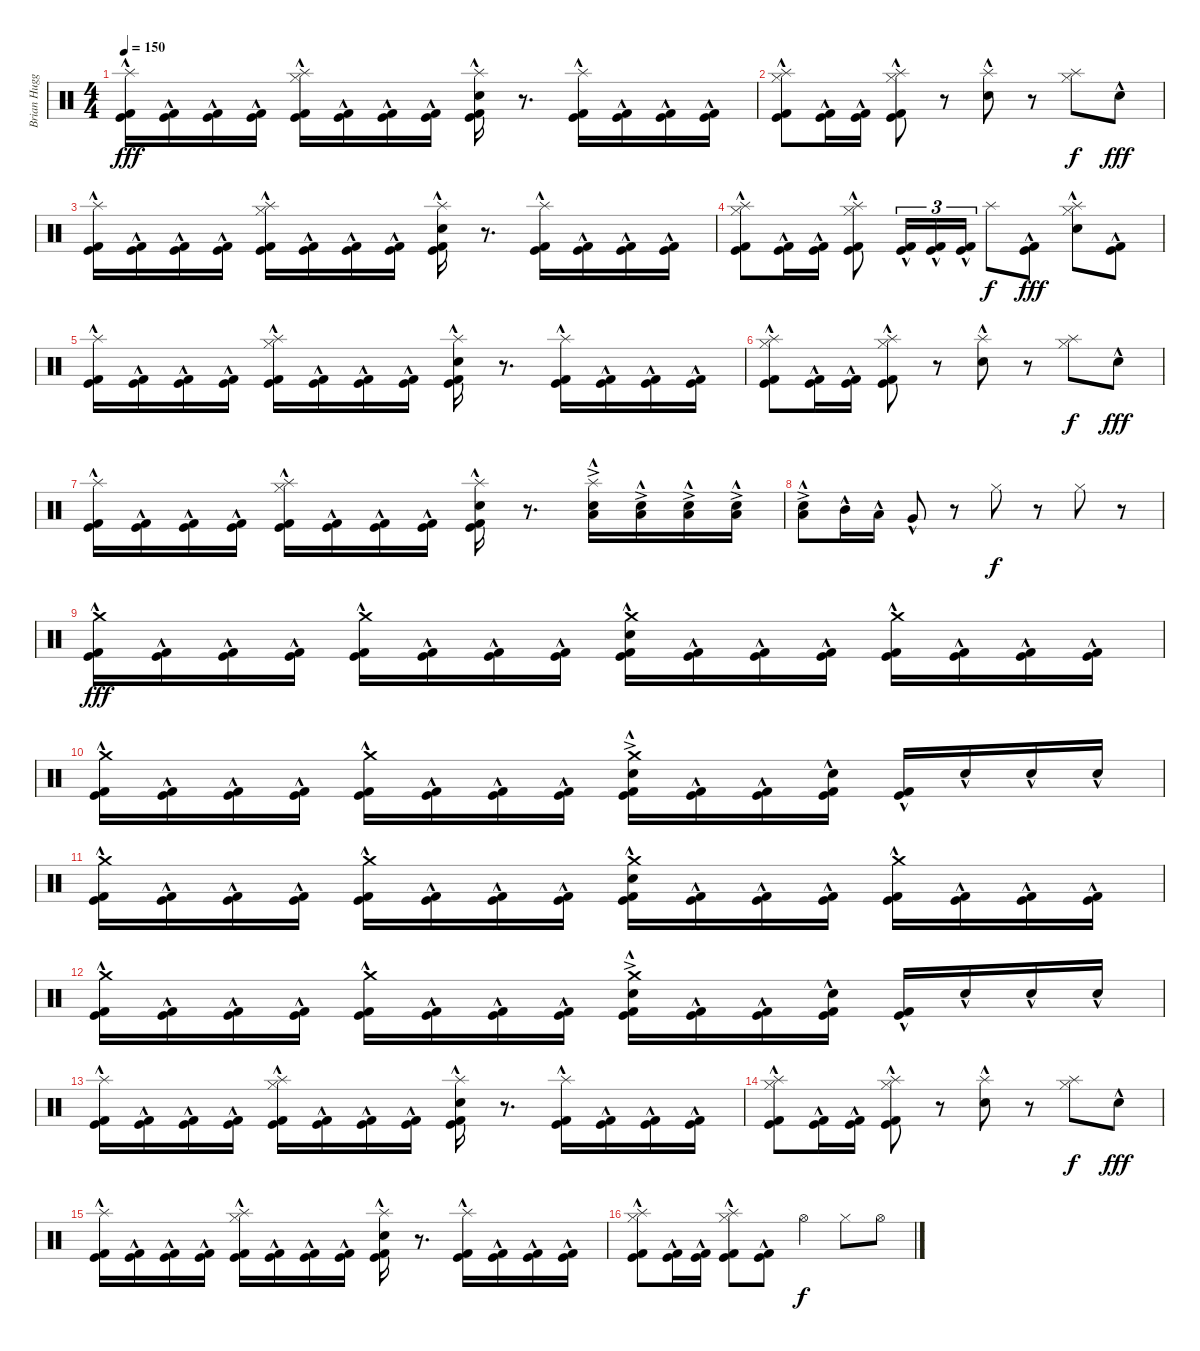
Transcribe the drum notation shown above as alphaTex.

\track ("Brian Huggins (Drums)" "Brian Hugg") {instrument percussion}
\staff {score}
\articulation defaults
\ts (4 4)
\tempo 150
\clef neutral
\ks c
("Splash (hit)" "Kick (hit)"{hac} "Kick (hit) 2"{hac}).16{dy fff} ("Kick (hit)"{hac} "Kick (hit) 2"{hac}).16 ("Kick (hit)"{hac} "Kick (hit) 2"{hac}).16 ("Kick (hit)"{hac} "Kick (hit) 2"{hac}).16 ("Hi-Hat (closed)" "Splash (hit)" "Kick (hit)"{hac} "Kick (hit) 2"{hac}).16 ("Kick (hit)"{hac} "Kick (hit) 2"{hac}).16 ("Kick (hit)"{hac} "Kick (hit) 2"{hac}).16 ("Kick (hit)"{hac} "Kick (hit) 2"{hac}).16 ("Splash (hit)" "Snare (hit) 2"{hac} "Kick (hit)"{hac} "Kick (hit) 2"{hac}).16 r.8{d} ("Splash (hit)" "Kick (hit)"{hac} "Kick (hit) 2"{hac}).16 ("Kick (hit)"{hac} "Kick (hit) 2"{hac}).16 ("Kick (hit)"{hac} "Kick (hit) 2"{hac}).16 ("Kick (hit)"{hac} "Kick (hit) 2"{hac}).16 |
("Hi-Hat (closed)" "Splash (hit)" "Kick (hit)"{hac} "Kick (hit) 2"{hac}).8 ("Kick (hit)"{hac} "Kick (hit) 2"{hac}).16 ("Kick (hit)"{hac} "Kick (hit) 2"{hac}).16 ("Hi-Hat (closed)" "Splash (hit)" "Kick (hit)"{hac} "Kick (hit) 2"{hac}).8 r.8 ("Splash (hit)" "Snare (hit) 2"{hac}).8 r.8 ("Hi-Hat (closed)" "Splash (hit)").8{dy f} "Snare (hit) 2"{hac}.8{dy fff} |
("Splash (hit)" "Kick (hit)"{hac} "Kick (hit) 2"{hac}).16 ("Kick (hit)"{hac} "Kick (hit) 2"{hac}).16 ("Kick (hit)"{hac} "Kick (hit) 2"{hac}).16 ("Kick (hit)"{hac} "Kick (hit) 2"{hac}).16 ("Hi-Hat (closed)" "Splash (hit)" "Kick (hit)"{hac} "Kick (hit) 2"{hac}).16 ("Kick (hit)"{hac} "Kick (hit) 2"{hac}).16 ("Kick (hit)"{hac} "Kick (hit) 2"{hac}).16 ("Kick (hit)"{hac} "Kick (hit) 2"{hac}).16 ("Splash (hit)" "Snare (hit) 2"{hac} "Kick (hit)"{hac} "Kick (hit) 2"{hac}).16 r.8{d} ("Splash (hit)" "Kick (hit)"{hac} "Kick (hit) 2"{hac}).16 ("Kick (hit)"{hac} "Kick (hit) 2"{hac}).16 ("Kick (hit)"{hac} "Kick (hit) 2"{hac}).16 ("Kick (hit)"{hac} "Kick (hit) 2"{hac}).16 |
("Hi-Hat (closed)" "Splash (hit)" "Kick (hit)"{hac} "Kick (hit) 2"{hac}).8 ("Kick (hit)"{hac} "Kick (hit) 2"{hac}).16 ("Kick (hit)"{hac} "Kick (hit) 2"{hac}).16 ("Hi-Hat (closed)" "Splash (hit)" "Kick (hit)"{hac} "Kick (hit) 2"{hac}).8 ("Kick (hit)"{hac} "Kick (hit) 2"{hac}).16{tu (3 2)} ("Kick (hit)"{hac} "Kick (hit) 2"{hac}).16{tu (3 2)} ("Kick (hit)"{hac} "Kick (hit) 2"{hac}).16{tu (3 2)} "Splash (hit)".8{dy f} ("Kick (hit)"{hac} "Kick (hit) 2"{hac}).8{dy fff} ("Hi-Hat (closed)" "Splash (hit)" "Snare (hit) 2"{hac}).8 ("Kick (hit)"{hac} "Kick (hit) 2"{hac}).8 |
("Splash (hit)" "Kick (hit)"{hac} "Kick (hit) 2"{hac}).16 ("Kick (hit)"{hac} "Kick (hit) 2"{hac}).16 ("Kick (hit)"{hac} "Kick (hit) 2"{hac}).16 ("Kick (hit)"{hac} "Kick (hit) 2"{hac}).16 ("Hi-Hat (closed)" "Splash (hit)" "Kick (hit)"{hac} "Kick (hit) 2"{hac}).16 ("Kick (hit)"{hac} "Kick (hit) 2"{hac}).16 ("Kick (hit)"{hac} "Kick (hit) 2"{hac}).16 ("Kick (hit)"{hac} "Kick (hit) 2"{hac}).16 ("Splash (hit)" "Snare (hit) 2"{hac} "Kick (hit)"{hac} "Kick (hit) 2"{hac}).16 r.8{d} ("Splash (hit)" "Kick (hit)"{hac} "Kick (hit) 2"{hac}).16 ("Kick (hit)"{hac} "Kick (hit) 2"{hac}).16 ("Kick (hit)"{hac} "Kick (hit) 2"{hac}).16 ("Kick (hit)"{hac} "Kick (hit) 2"{hac}).16 |
("Hi-Hat (closed)" "Splash (hit)" "Kick (hit)"{hac} "Kick (hit) 2"{hac}).8 ("Kick (hit)"{hac} "Kick (hit) 2"{hac}).16 ("Kick (hit)"{hac} "Kick (hit) 2"{hac}).16 ("Hi-Hat (closed)" "Splash (hit)" "Kick (hit)"{hac} "Kick (hit) 2"{hac}).8 r.8 ("Splash (hit)" "Snare (hit) 2"{hac}).8 r.8 ("Hi-Hat (closed)" "Splash (hit)").8{dy f} "Snare (hit) 2"{hac}.8{dy fff} |
("Splash (hit)" "Kick (hit)"{hac} "Kick (hit) 2"{hac}).16 ("Kick (hit)"{hac} "Kick (hit) 2"{hac}).16 ("Kick (hit)"{hac} "Kick (hit) 2"{hac}).16 ("Kick (hit)"{hac} "Kick (hit) 2"{hac}).16 ("Hi-Hat (closed)" "Splash (hit)" "Kick (hit)"{hac} "Kick (hit) 2"{hac}).16 ("Kick (hit)"{hac} "Kick (hit) 2"{hac}).16 ("Kick (hit)"{hac} "Kick (hit) 2"{hac}).16 ("Kick (hit)"{hac} "Kick (hit) 2"{hac}).16 ("Splash (hit)" "Snare (hit) 2"{hac} "Kick (hit)"{hac} "Kick (hit) 2"{hac}).16 r.8{d} ("Splash (hit)" "Low Floor Tom (hit)"{ac} "Snare (hit) 2"{hac}).16 ("Low Floor Tom (hit)"{ac} "Snare (hit) 2"{hac}).16 ("Low Floor Tom (hit)"{ac} "Snare (hit) 2"{hac}).16 ("Low Floor Tom (hit)"{ac} "Snare (hit) 2"{hac}).16 |
("Low Floor Tom (hit)"{ac} "Snare (hit) 2"{hac}).8 "Mid Tom (hit)"{hac}.16 "Low Tom (hit)"{hac}.16 "Very Low Tom (hit)"{hac}.8 r.8 "Hi-Hat (closed)".8{dy f} r.8 "Hi-Hat (closed)".8 r.8 |
("Crash medium (hit)" "Kick (hit)"{hac} "Kick (hit) 2"{hac}).16{dy fff} ("Kick (hit)"{hac} "Kick (hit) 2"{hac}).16 ("Kick (hit)"{hac} "Kick (hit) 2"{hac}).16 ("Kick (hit)"{hac} "Kick (hit) 2"{hac}).16 ("Crash medium (hit)" "Kick (hit)"{hac} "Kick (hit) 2"{hac}).16 ("Kick (hit)"{hac} "Kick (hit) 2"{hac}).16 ("Kick (hit)"{hac} "Kick (hit) 2"{hac}).16 ("Kick (hit)"{hac} "Kick (hit) 2"{hac}).16 ("Crash medium (hit)" "Snare (hit) 2"{hac} "Kick (hit)"{hac} "Kick (hit) 2"{hac}).16 ("Kick (hit)"{hac} "Kick (hit) 2"{hac}).16 ("Kick (hit)"{hac} "Kick (hit) 2"{hac}).16 ("Kick (hit)"{hac} "Kick (hit) 2"{hac}).16 ("Crash medium (hit)" "Kick (hit)"{hac} "Kick (hit) 2"{hac}).16 ("Kick (hit)"{hac} "Kick (hit) 2"{hac}).16 ("Kick (hit)"{hac} "Kick (hit) 2"{hac}).16 ("Kick (hit)"{hac} "Kick (hit) 2"{hac}).16 |
("Crash medium (hit)" "Kick (hit)"{hac} "Kick (hit) 2"{hac}).16 ("Kick (hit)"{hac} "Kick (hit) 2"{hac}).16 ("Kick (hit)"{hac} "Kick (hit) 2"{hac}).16 ("Kick (hit)"{hac} "Kick (hit) 2"{hac}).16 ("Crash medium (hit)" "Kick (hit)"{hac} "Kick (hit) 2"{hac}).16 ("Kick (hit)"{hac} "Kick (hit) 2"{hac}).16 ("Kick (hit)"{hac} "Kick (hit) 2"{hac}).16 ("Kick (hit)"{hac} "Kick (hit) 2"{hac}).16 ("Crash medium (hit)" "Snare (hit) 2"{ac} "Kick (hit)"{hac} "Kick (hit) 2"{hac}).16 ("Kick (hit)"{hac} "Kick (hit) 2"{hac}).16 ("Kick (hit)"{hac} "Kick (hit) 2"{hac}).16 ("Snare (hit) 2"{hac} "Kick (hit)"{hac} "Kick (hit) 2"{hac}).16 ("Kick (hit)"{hac} "Kick (hit) 2"{hac}).16 "Snare (hit) 2"{hac}.16 "Snare (hit) 2"{hac}.16 "Snare (hit) 2"{hac}.16 |
("Crash medium (hit)" "Kick (hit)"{hac} "Kick (hit) 2"{hac}).16 ("Kick (hit)"{hac} "Kick (hit) 2"{hac}).16 ("Kick (hit)"{hac} "Kick (hit) 2"{hac}).16 ("Kick (hit)"{hac} "Kick (hit) 2"{hac}).16 ("Crash medium (hit)" "Kick (hit)"{hac} "Kick (hit) 2"{hac}).16 ("Kick (hit)"{hac} "Kick (hit) 2"{hac}).16 ("Kick (hit)"{hac} "Kick (hit) 2"{hac}).16 ("Kick (hit)"{hac} "Kick (hit) 2"{hac}).16 ("Crash medium (hit)" "Snare (hit) 2"{hac} "Kick (hit)"{hac} "Kick (hit) 2"{hac}).16 ("Kick (hit)"{hac} "Kick (hit) 2"{hac}).16 ("Kick (hit)"{hac} "Kick (hit) 2"{hac}).16 ("Kick (hit)"{hac} "Kick (hit) 2"{hac}).16 ("Crash medium (hit)" "Kick (hit)"{hac} "Kick (hit) 2"{hac}).16 ("Kick (hit)"{hac} "Kick (hit) 2"{hac}).16 ("Kick (hit)"{hac} "Kick (hit) 2"{hac}).16 ("Kick (hit)"{hac} "Kick (hit) 2"{hac}).16 |
("Crash medium (hit)" "Kick (hit)"{hac} "Kick (hit) 2"{hac}).16 ("Kick (hit)"{hac} "Kick (hit) 2"{hac}).16 ("Kick (hit)"{hac} "Kick (hit) 2"{hac}).16 ("Kick (hit)"{hac} "Kick (hit) 2"{hac}).16 ("Crash medium (hit)" "Kick (hit)"{hac} "Kick (hit) 2"{hac}).16 ("Kick (hit)"{hac} "Kick (hit) 2"{hac}).16 ("Kick (hit)"{hac} "Kick (hit) 2"{hac}).16 ("Kick (hit)"{hac} "Kick (hit) 2"{hac}).16 ("Crash medium (hit)" "Snare (hit) 2"{ac} "Kick (hit)"{hac} "Kick (hit) 2"{hac}).16 ("Kick (hit)"{hac} "Kick (hit) 2"{hac}).16 ("Kick (hit)"{hac} "Kick (hit) 2"{hac}).16 ("Snare (hit) 2"{hac} "Kick (hit)"{hac} "Kick (hit) 2"{hac}).16 ("Kick (hit)"{hac} "Kick (hit) 2"{hac}).16 "Snare (hit) 2"{hac}.16 "Snare (hit) 2"{hac}.16 "Snare (hit) 2"{hac}.16 |
("Splash (hit)" "Kick (hit)"{hac} "Kick (hit) 2"{hac}).16 ("Kick (hit)"{hac} "Kick (hit) 2"{hac}).16 ("Kick (hit)"{hac} "Kick (hit) 2"{hac}).16 ("Kick (hit)"{hac} "Kick (hit) 2"{hac}).16 ("Hi-Hat (closed)" "Splash (hit)" "Kick (hit)"{hac} "Kick (hit) 2"{hac}).16 ("Kick (hit)"{hac} "Kick (hit) 2"{hac}).16 ("Kick (hit)"{hac} "Kick (hit) 2"{hac}).16 ("Kick (hit)"{hac} "Kick (hit) 2"{hac}).16 ("Splash (hit)" "Snare (hit) 2"{hac} "Kick (hit)"{hac} "Kick (hit) 2"{hac}).16 r.8{d} ("Splash (hit)" "Kick (hit)"{hac} "Kick (hit) 2"{hac}).16 ("Kick (hit)"{hac} "Kick (hit) 2"{hac}).16 ("Kick (hit)"{hac} "Kick (hit) 2"{hac}).16 ("Kick (hit)"{hac} "Kick (hit) 2"{hac}).16 |
("Hi-Hat (closed)" "Splash (hit)" "Kick (hit)"{hac} "Kick (hit) 2"{hac}).8 ("Kick (hit)"{hac} "Kick (hit) 2"{hac}).16 ("Kick (hit)"{hac} "Kick (hit) 2"{hac}).16 ("Hi-Hat (closed)" "Splash (hit)" "Kick (hit)"{hac} "Kick (hit) 2"{hac}).8 r.8 ("Splash (hit)" "Snare (hit) 2"{hac}).8 r.8 ("Hi-Hat (closed)" "Splash (hit)").8{dy f} "Snare (hit) 2"{hac}.8{dy fff} |
("Splash (hit)" "Kick (hit)"{hac} "Kick (hit) 2"{hac}).16 ("Kick (hit)"{hac} "Kick (hit) 2"{hac}).16 ("Kick (hit)"{hac} "Kick (hit) 2"{hac}).16 ("Kick (hit)"{hac} "Kick (hit) 2"{hac}).16 ("Hi-Hat (closed)" "Splash (hit)" "Kick (hit)"{hac} "Kick (hit) 2"{hac}).16 ("Kick (hit)"{hac} "Kick (hit) 2"{hac}).16 ("Kick (hit)"{hac} "Kick (hit) 2"{hac}).16 ("Kick (hit)"{hac} "Kick (hit) 2"{hac}).16 ("Splash (hit)" "Snare (hit) 2"{hac} "Kick (hit)"{hac} "Kick (hit) 2"{hac}).16 r.8{d} ("Splash (hit)" "Kick (hit)"{hac} "Kick (hit) 2"{hac}).16 ("Kick (hit)"{hac} "Kick (hit) 2"{hac}).16 ("Kick (hit)"{hac} "Kick (hit) 2"{hac}).16 ("Kick (hit)"{hac} "Kick (hit) 2"{hac}).16 |
("Hi-Hat (closed)" "Splash (hit)" "Kick (hit)"{hac} "Kick (hit) 2"{hac}).8 ("Kick (hit)"{hac} "Kick (hit) 2"{hac}).16 ("Kick (hit)"{hac} "Kick (hit) 2"{hac}).16 ("Hi-Hat (closed)" "Splash (hit)" "Kick (hit)"{hac} "Kick (hit) 2"{hac}).8 ("Kick (hit)"{hac} "Kick (hit) 2"{hac}).8 "Hi-Hat (open)".4{dy f} "Hi-Hat (closed)".8 "Hi-Hat (open)".8
